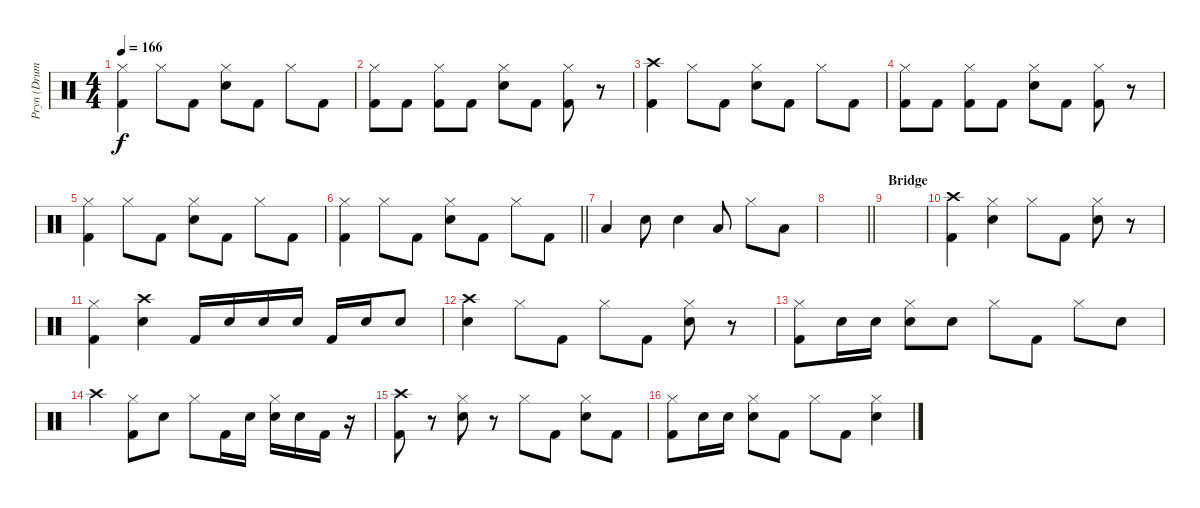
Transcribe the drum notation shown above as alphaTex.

\track ("Pryn (Drums)" "Pryn (Drum") {instrument percussion}
\staff {score}
\articulation defaults
\ts (4 4)
\tempo 166
\clef neutral
\ks c
("Kick (hit) 2" "Hi-Hat (closed)").4{dy f} "Hi-Hat (closed)".8 "Kick (hit) 2".8 ("Snare (hit) 2" "Hi-Hat (closed)").8 "Kick (hit) 2".8 "Hi-Hat (closed)".8 "Kick (hit) 2".8 |
("Kick (hit) 2" "Hi-Hat (closed)").8 "Kick (hit) 2".8 ("Kick (hit) 2" "Hi-Hat (closed)").8 "Kick (hit) 2".8 ("Snare (hit) 2" "Hi-Hat (closed)").8 "Kick (hit) 2".8 ("Kick (hit) 2" "Hi-Hat (closed)").8 r.8 |
("Kick (hit) 2" "Crash high (hit)").4 "Hi-Hat (closed)".8 "Kick (hit) 2".8 ("Snare (hit) 2" "Hi-Hat (closed)").8 "Kick (hit) 2".8 "Hi-Hat (closed)".8 "Kick (hit) 2".8 |
("Kick (hit) 2" "Hi-Hat (closed)").8 "Kick (hit) 2".8 ("Kick (hit) 2" "Hi-Hat (closed)").8 "Kick (hit) 2".8 ("Snare (hit) 2" "Hi-Hat (closed)").8 "Kick (hit) 2".8 ("Kick (hit) 2" "Hi-Hat (closed)").8 r.8 |
("Kick (hit) 2" "Hi-Hat (closed)").4 "Hi-Hat (closed)".8 "Kick (hit) 2".8 ("Snare (hit) 2" "Hi-Hat (closed)").8 "Kick (hit) 2".8 "Hi-Hat (closed)".8 "Kick (hit) 2".8 |
\barLineRight lightlight
("Kick (hit) 2" "Hi-Hat (closed)").4 "Hi-Hat (closed)".8 "Kick (hit) 2".8 ("Snare (hit) 2" "Hi-Hat (closed)").8 "Kick (hit) 2".8 "Hi-Hat (closed)".8 "Kick (hit) 2".8 |
"Low Floor Tom (hit)".4 "Snare (hit) 2".8 "Snare (hit) 2".4 "Low Floor Tom (hit)".8 "Hi-Hat (closed)".8 "Low Floor Tom (hit)".8 |
\barLineRight lightlight
|
\section ("" "Bridge")
|
("Kick (hit) 2" "Crash high (hit)").4 ("Snare (hit) 2" "Hi-Hat (closed)").4 "Hi-Hat (closed)".8 "Kick (hit) 2".8 ("Hi-Hat (closed)" "Snare (hit) 2").8 r.8 |
("Kick (hit) 2" "Hi-Hat (closed)").4 ("Snare (hit) 2" "Crash high (hit)").4 "Kick (hit) 2".16 "Snare (hit) 2".16 "Snare (hit) 2".16 "Snare (hit) 2".16 "Kick (hit) 2".16 "Snare (hit) 2".16 "Snare (hit) 2".8 |
("Snare (hit) 2" "Crash high (hit)").4 "Hi-Hat (closed)".8 "Kick (hit) 2".8 "Hi-Hat (closed)".8 "Kick (hit) 2".8 ("Snare (hit) 2" "Hi-Hat (closed)").8 r.8 |
("Kick (hit) 2" "Hi-Hat (closed)").8 "Snare (hit) 2".16 "Snare (hit) 2".16 ("Snare (hit) 2" "Hi-Hat (closed)").8 "Snare (hit) 2".8 "Hi-Hat (closed)".8 "Kick (hit) 2".8 "Hi-Hat (closed)".8 "Snare (hit) 2".8 |
"Crash high (hit)".4 ("Kick (hit) 2" "Hi-Hat (closed)").8 "Snare (hit) 2".8 "Hi-Hat (closed)".8 "Kick (hit) 2".16 "Snare (hit) 2".16 ("Snare (hit) 2" "Hi-Hat (closed)").16 "Snare (hit) 2".16 "Kick (hit) 2".16 r.16 |
("Kick (hit) 2" "Crash high (hit)").8 r.8 ("Snare (hit) 2" "Hi-Hat (closed)").8 r.8 "Hi-Hat (closed)".8 "Kick (hit) 2".8 ("Snare (hit) 2" "Hi-Hat (closed)").8 "Kick (hit) 2".8 |
("Hi-Hat (closed)" "Kick (hit) 2").8 "Snare (hit) 2".16 "Snare (hit) 2".16 ("Hi-Hat (closed)" "Snare (hit) 2").8 "Kick (hit) 2".8 "Hi-Hat (closed)".8 "Kick (hit) 2".8 ("Snare (hit) 2" "Hi-Hat (closed)").4
